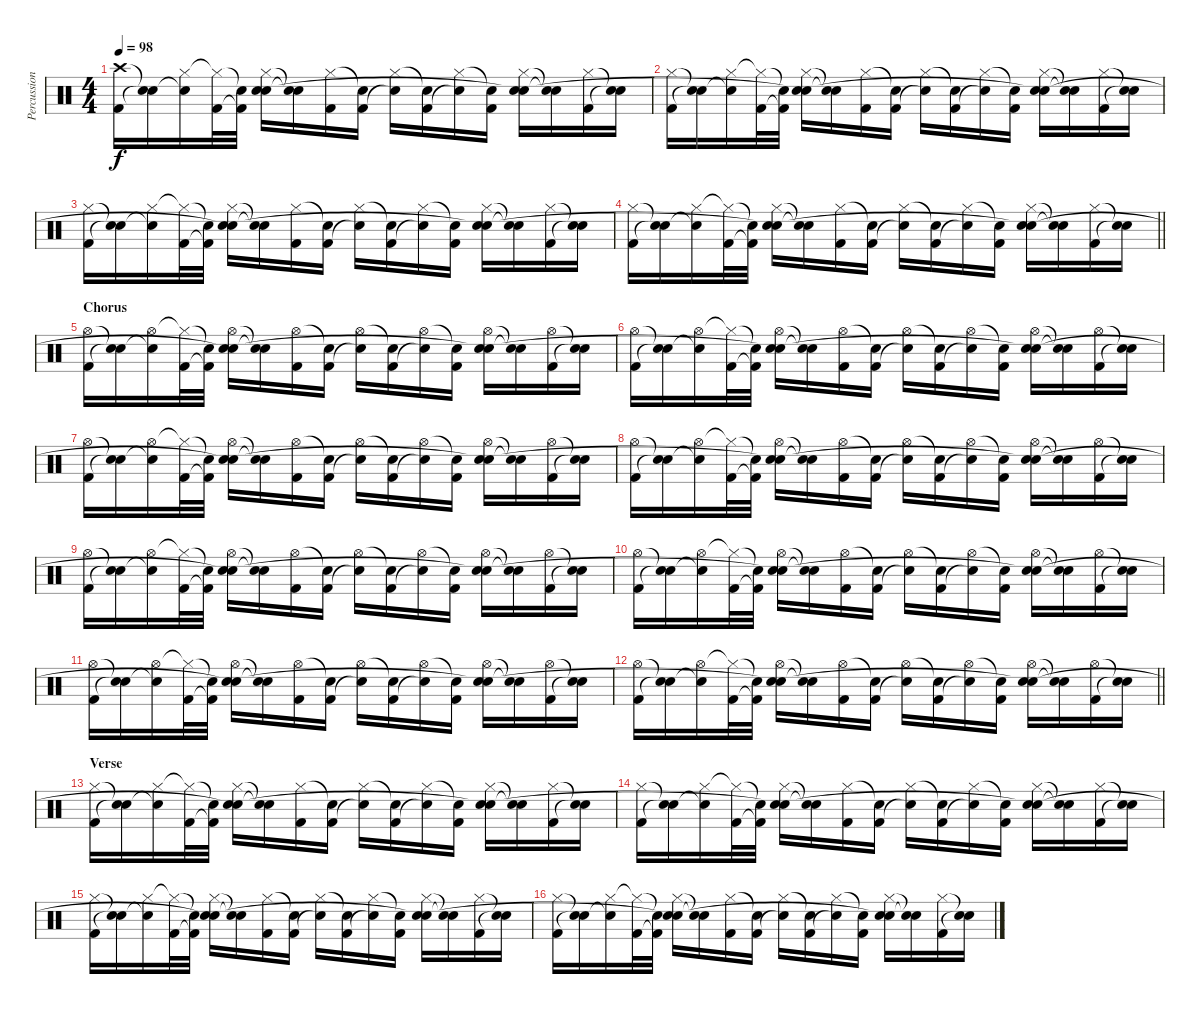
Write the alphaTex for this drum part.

\track ("Percussion" "Percussion") {instrument percussion}
\staff {score}
\articulation defaults
\ts (4 4)
\tempo 98
\clef neutral
\ks c
("Crash high (hit)" "Kick (hit) 2").16{dy f} ("Snare (hit)"{t} "Snare (hit)"{t}).16 ("Hi-Hat (closed)" "Snare (hit)"{t}).16 ("Hi-Hat (closed)"{t} "Kick (hit) 2").32 ("Snare (hit)"{t} "Kick (hit) 2"{t}).32 ("Hi-Hat (closed)" "Electric Snare (hit)" "Snare (hit)"{t}).16 ("Snare (hit)"{t} "Snare (hit)"{t}).16 ("Hi-Hat (closed)" "Kick (hit) 2").16 ("Snare (hit)"{t} "Kick (hit) 2").16 ("Hi-Hat (closed)" "Snare (hit)"{t}).16 ("Snare (hit)"{t} "Kick (hit) 2").16 ("Hi-Hat (closed)" "Snare (hit)"{t}).16 ("Snare (hit)"{t} "Kick (hit) 2").16 ("Hi-Hat (closed)" "Electric Snare (hit)" "Snare (hit)"{t}).16 ("Snare (hit)"{t} "Snare (hit)"{t}).16 ("Hi-Hat (closed)" "Kick (hit) 2").16 ("Snare (hit)"{t} "Snare (hit)"{t}).16 |
("Hi-Hat (closed)" "Kick (hit) 2").16 ("Snare (hit)"{t} "Snare (hit)"{t}).16 ("Hi-Hat (closed)" "Snare (hit)"{t}).16 ("Hi-Hat (closed)"{t} "Kick (hit) 2").32 ("Snare (hit)"{t} "Kick (hit) 2"{t}).32 ("Hi-Hat (closed)" "Electric Snare (hit)" "Snare (hit)"{t}).16 ("Snare (hit)"{t} "Snare (hit)"{t}).16 ("Hi-Hat (closed)" "Kick (hit) 2").16 ("Snare (hit)"{t} "Kick (hit) 2").16 ("Hi-Hat (closed)" "Snare (hit)"{t}).16 ("Snare (hit)"{t} "Kick (hit) 2").16 ("Hi-Hat (closed)" "Snare (hit)"{t}).16 ("Snare (hit)"{t} "Kick (hit) 2").16 ("Hi-Hat (closed)" "Electric Snare (hit)" "Snare (hit)"{t}).16 ("Snare (hit)"{t} "Snare (hit)"{t}).16 ("Hi-Hat (closed)" "Kick (hit) 2").16 ("Snare (hit)"{t} "Snare (hit)"{t}).16 |
("Hi-Hat (closed)" "Kick (hit) 2").16 ("Snare (hit)"{t} "Snare (hit)"{t}).16 ("Hi-Hat (closed)" "Snare (hit)"{t}).16 ("Hi-Hat (closed)"{t} "Kick (hit) 2").32 ("Snare (hit)"{t} "Kick (hit) 2"{t}).32 ("Hi-Hat (closed)" "Electric Snare (hit)" "Snare (hit)"{t}).16 ("Snare (hit)"{t} "Snare (hit)"{t}).16 ("Hi-Hat (closed)" "Kick (hit) 2").16 ("Snare (hit)"{t} "Kick (hit) 2").16 ("Hi-Hat (closed)" "Snare (hit)"{t}).16 ("Snare (hit)"{t} "Kick (hit) 2").16 ("Hi-Hat (closed)" "Snare (hit)"{t}).16 ("Snare (hit)"{t} "Kick (hit) 2").16 ("Hi-Hat (closed)" "Electric Snare (hit)" "Snare (hit)"{t}).16 ("Snare (hit)"{t} "Snare (hit)"{t}).16 ("Hi-Hat (closed)" "Kick (hit) 2").16 ("Snare (hit)"{t} "Snare (hit)"{t}).16 |
\barLineRight lightlight
("Hi-Hat (closed)" "Kick (hit) 2").16 ("Snare (hit)"{t} "Snare (hit)"{t}).16 ("Hi-Hat (closed)" "Snare (hit)"{t}).16 ("Hi-Hat (closed)"{t} "Kick (hit) 2").32 ("Snare (hit)"{t} "Kick (hit) 2"{t}).32 ("Hi-Hat (closed)" "Electric Snare (hit)" "Snare (hit)"{t}).16 ("Snare (hit)"{t} "Snare (hit)"{t}).16 ("Hi-Hat (closed)" "Kick (hit) 2").16 ("Snare (hit)"{t} "Kick (hit) 2").16 ("Hi-Hat (closed)" "Snare (hit)"{t}).16 ("Snare (hit)"{t} "Kick (hit) 2").16 ("Hi-Hat (closed)" "Snare (hit)"{t}).16 ("Snare (hit)"{t} "Kick (hit) 2").16 ("Hi-Hat (closed)" "Electric Snare (hit)" "Snare (hit)"{t}).16 ("Snare (hit)"{t} "Snare (hit)"{t}).16 ("Hi-Hat (closed)" "Kick (hit) 2").16 ("Snare (hit)"{t} "Snare (hit)"{t}).16 |
\section ("" "Chorus")
("Hi-Hat (open)" "Kick (hit) 2").16 ("Snare (hit)"{t} "Snare (hit)"{t}).16 ("Hi-Hat (open)" "Snare (hit)"{t}).16 ("Hi-Hat (closed)"{t} "Kick (hit) 2").32 ("Snare (hit)"{t} "Kick (hit) 2"{t}).32 ("Hi-Hat (open)" "Electric Snare (hit)" "Snare (hit)"{t}).16 ("Snare (hit)"{t} "Snare (hit)"{t}).16 ("Hi-Hat (open)" "Kick (hit) 2").16 ("Snare (hit)"{t} "Kick (hit) 2").16 ("Hi-Hat (open)" "Snare (hit)"{t}).16 ("Snare (hit)"{t} "Kick (hit) 2").16 ("Hi-Hat (open)" "Snare (hit)"{t}).16 ("Snare (hit)"{t} "Kick (hit) 2").16 ("Hi-Hat (open)" "Electric Snare (hit)" "Snare (hit)"{t}).16 ("Snare (hit)"{t} "Snare (hit)"{t}).16 ("Hi-Hat (open)" "Kick (hit) 2").16 ("Snare (hit)"{t} "Snare (hit)"{t}).16 |
("Hi-Hat (open)" "Kick (hit) 2").16 ("Snare (hit)"{t} "Snare (hit)"{t}).16 ("Hi-Hat (open)" "Snare (hit)"{t}).16 ("Hi-Hat (closed)"{t} "Kick (hit) 2").32 ("Snare (hit)"{t} "Kick (hit) 2"{t}).32 ("Hi-Hat (open)" "Electric Snare (hit)" "Snare (hit)"{t}).16 ("Snare (hit)"{t} "Snare (hit)"{t}).16 ("Hi-Hat (open)" "Kick (hit) 2").16 ("Snare (hit)"{t} "Kick (hit) 2").16 ("Hi-Hat (open)" "Snare (hit)"{t}).16 ("Snare (hit)"{t} "Kick (hit) 2").16 ("Hi-Hat (open)" "Snare (hit)"{t}).16 ("Snare (hit)"{t} "Kick (hit) 2").16 ("Hi-Hat (open)" "Electric Snare (hit)" "Snare (hit)"{t}).16 ("Snare (hit)"{t} "Snare (hit)"{t}).16 ("Hi-Hat (open)" "Kick (hit) 2").16 ("Snare (hit)"{t} "Snare (hit)"{t}).16 |
("Hi-Hat (open)" "Kick (hit) 2").16 ("Snare (hit)"{t} "Snare (hit)"{t}).16 ("Hi-Hat (open)" "Snare (hit)"{t}).16 ("Hi-Hat (closed)"{t} "Kick (hit) 2").32 ("Snare (hit)"{t} "Kick (hit) 2"{t}).32 ("Hi-Hat (open)" "Electric Snare (hit)" "Snare (hit)"{t}).16 ("Snare (hit)"{t} "Snare (hit)"{t}).16 ("Hi-Hat (open)" "Kick (hit) 2").16 ("Snare (hit)"{t} "Kick (hit) 2").16 ("Hi-Hat (open)" "Snare (hit)"{t}).16 ("Snare (hit)"{t} "Kick (hit) 2").16 ("Hi-Hat (open)" "Snare (hit)"{t}).16 ("Snare (hit)"{t} "Kick (hit) 2").16 ("Hi-Hat (open)" "Electric Snare (hit)" "Snare (hit)"{t}).16 ("Snare (hit)"{t} "Snare (hit)"{t}).16 ("Hi-Hat (open)" "Kick (hit) 2").16 ("Snare (hit)"{t} "Snare (hit)"{t}).16 |
("Hi-Hat (open)" "Kick (hit) 2").16 ("Snare (hit)"{t} "Snare (hit)"{t}).16 ("Hi-Hat (open)" "Snare (hit)"{t}).16 ("Hi-Hat (closed)"{t} "Kick (hit) 2").32 ("Snare (hit)"{t} "Kick (hit) 2"{t}).32 ("Hi-Hat (open)" "Electric Snare (hit)" "Snare (hit)"{t}).16 ("Snare (hit)"{t} "Snare (hit)"{t}).16 ("Hi-Hat (open)" "Kick (hit) 2").16 ("Snare (hit)"{t} "Kick (hit) 2").16 ("Hi-Hat (open)" "Snare (hit)"{t}).16 ("Snare (hit)"{t} "Kick (hit) 2").16 ("Hi-Hat (open)" "Snare (hit)"{t}).16 ("Snare (hit)"{t} "Kick (hit) 2").16 ("Hi-Hat (open)" "Electric Snare (hit)" "Snare (hit)"{t}).16 ("Snare (hit)"{t} "Snare (hit)"{t}).16 ("Hi-Hat (open)" "Kick (hit) 2").16 ("Snare (hit)"{t} "Snare (hit)"{t}).16 |
("Hi-Hat (open)" "Kick (hit) 2").16 ("Snare (hit)"{t} "Snare (hit)"{t}).16 ("Hi-Hat (open)" "Snare (hit)"{t}).16 ("Hi-Hat (closed)"{t} "Kick (hit) 2").32 ("Snare (hit)"{t} "Kick (hit) 2"{t}).32 ("Hi-Hat (open)" "Electric Snare (hit)" "Snare (hit)"{t}).16 ("Snare (hit)"{t} "Snare (hit)"{t}).16 ("Hi-Hat (open)" "Kick (hit) 2").16 ("Snare (hit)"{t} "Kick (hit) 2").16 ("Hi-Hat (open)" "Snare (hit)"{t}).16 ("Snare (hit)"{t} "Kick (hit) 2").16 ("Hi-Hat (open)" "Snare (hit)"{t}).16 ("Snare (hit)"{t} "Kick (hit) 2").16 ("Hi-Hat (open)" "Electric Snare (hit)" "Snare (hit)"{t}).16 ("Snare (hit)"{t} "Snare (hit)"{t}).16 ("Hi-Hat (open)" "Kick (hit) 2").16 ("Snare (hit)"{t} "Snare (hit)"{t}).16 |
("Hi-Hat (open)" "Kick (hit) 2").16 ("Snare (hit)"{t} "Snare (hit)"{t}).16 ("Hi-Hat (open)" "Snare (hit)"{t}).16 ("Hi-Hat (closed)"{t} "Kick (hit) 2").32 ("Snare (hit)"{t} "Kick (hit) 2"{t}).32 ("Hi-Hat (open)" "Electric Snare (hit)" "Snare (hit)"{t}).16 ("Snare (hit)"{t} "Snare (hit)"{t}).16 ("Hi-Hat (open)" "Kick (hit) 2").16 ("Snare (hit)"{t} "Kick (hit) 2").16 ("Hi-Hat (open)" "Snare (hit)"{t}).16 ("Snare (hit)"{t} "Kick (hit) 2").16 ("Hi-Hat (open)" "Snare (hit)"{t}).16 ("Snare (hit)"{t} "Kick (hit) 2").16 ("Hi-Hat (open)" "Electric Snare (hit)" "Snare (hit)"{t}).16 ("Snare (hit)"{t} "Snare (hit)"{t}).16 ("Hi-Hat (open)" "Kick (hit) 2").16 ("Snare (hit)"{t} "Snare (hit)"{t}).16 |
("Hi-Hat (open)" "Kick (hit) 2").16 ("Snare (hit)"{t} "Snare (hit)"{t}).16 ("Hi-Hat (open)" "Snare (hit)"{t}).16 ("Hi-Hat (closed)"{t} "Kick (hit) 2").32 ("Snare (hit)"{t} "Kick (hit) 2"{t}).32 ("Hi-Hat (open)" "Electric Snare (hit)" "Snare (hit)"{t}).16 ("Snare (hit)"{t} "Snare (hit)"{t}).16 ("Hi-Hat (open)" "Kick (hit) 2").16 ("Snare (hit)"{t} "Kick (hit) 2").16 ("Hi-Hat (open)" "Snare (hit)"{t}).16 ("Snare (hit)"{t} "Kick (hit) 2").16 ("Hi-Hat (open)" "Snare (hit)"{t}).16 ("Snare (hit)"{t} "Kick (hit) 2").16 ("Hi-Hat (open)" "Electric Snare (hit)" "Snare (hit)"{t}).16 ("Snare (hit)"{t} "Snare (hit)"{t}).16 ("Hi-Hat (open)" "Kick (hit) 2").16 ("Snare (hit)"{t} "Snare (hit)"{t}).16 |
\barLineRight lightlight
("Hi-Hat (open)" "Kick (hit) 2").16 ("Snare (hit)"{t} "Snare (hit)"{t}).16 ("Hi-Hat (open)" "Snare (hit)"{t}).16 ("Hi-Hat (closed)"{t} "Kick (hit) 2").32 ("Snare (hit)"{t} "Kick (hit) 2"{t}).32 ("Hi-Hat (open)" "Electric Snare (hit)" "Snare (hit)"{t}).16 ("Snare (hit)"{t} "Snare (hit)"{t}).16 ("Hi-Hat (open)" "Kick (hit) 2").16 ("Snare (hit)"{t} "Kick (hit) 2").16 ("Hi-Hat (open)" "Snare (hit)"{t}).16 ("Snare (hit)"{t} "Kick (hit) 2").16 ("Hi-Hat (open)" "Snare (hit)"{t}).16 ("Snare (hit)"{t} "Kick (hit) 2").16 ("Hi-Hat (open)" "Electric Snare (hit)" "Snare (hit)"{t}).16 ("Snare (hit)"{t} "Snare (hit)"{t}).16 ("Hi-Hat (open)" "Kick (hit) 2").16 ("Snare (hit)"{t} "Snare (hit)"{t}).16 |
\section ("" "Verse")
("Hi-Hat (closed)" "Kick (hit) 2").16 ("Snare (hit)"{t} "Snare (hit)"{t}).16 ("Hi-Hat (closed)" "Snare (hit)"{t}).16 ("Hi-Hat (closed)"{t} "Kick (hit) 2").32 ("Snare (hit)"{t} "Kick (hit) 2"{t}).32 ("Hi-Hat (closed)" "Electric Snare (hit)" "Snare (hit)"{t}).16 ("Snare (hit)"{t} "Snare (hit)"{t}).16 ("Hi-Hat (closed)" "Kick (hit) 2").16 ("Snare (hit)"{t} "Kick (hit) 2").16 ("Hi-Hat (closed)" "Snare (hit)"{t}).16 ("Snare (hit)"{t} "Kick (hit) 2").16 ("Hi-Hat (closed)" "Snare (hit)"{t}).16 ("Snare (hit)"{t} "Kick (hit) 2").16 ("Hi-Hat (closed)" "Electric Snare (hit)" "Snare (hit)"{t}).16 ("Snare (hit)"{t} "Snare (hit)"{t}).16 ("Hi-Hat (closed)" "Kick (hit) 2").16 ("Snare (hit)"{t} "Snare (hit)"{t}).16 |
("Hi-Hat (closed)" "Kick (hit) 2").16 ("Snare (hit)"{t} "Snare (hit)"{t}).16 ("Hi-Hat (closed)" "Snare (hit)"{t}).16 ("Hi-Hat (closed)"{t} "Kick (hit) 2").32 ("Snare (hit)"{t} "Kick (hit) 2"{t}).32 ("Hi-Hat (closed)" "Electric Snare (hit)" "Snare (hit)"{t}).16 ("Snare (hit)"{t} "Snare (hit)"{t}).16 ("Hi-Hat (closed)" "Kick (hit) 2").16 ("Snare (hit)"{t} "Kick (hit) 2").16 ("Hi-Hat (closed)" "Snare (hit)"{t}).16 ("Snare (hit)"{t} "Kick (hit) 2").16 ("Hi-Hat (closed)" "Snare (hit)"{t}).16 ("Snare (hit)"{t} "Kick (hit) 2").16 ("Hi-Hat (closed)" "Electric Snare (hit)" "Snare (hit)"{t}).16 ("Snare (hit)"{t} "Snare (hit)"{t}).16 ("Hi-Hat (closed)" "Kick (hit) 2").16 ("Snare (hit)"{t} "Snare (hit)"{t}).16 |
("Hi-Hat (closed)" "Kick (hit) 2").16 ("Snare (hit)"{t} "Snare (hit)"{t}).16 ("Hi-Hat (closed)" "Snare (hit)"{t}).16 ("Hi-Hat (closed)"{t} "Kick (hit) 2").32 ("Snare (hit)"{t} "Kick (hit) 2"{t}).32 ("Hi-Hat (closed)" "Electric Snare (hit)" "Snare (hit)"{t}).16 ("Snare (hit)"{t} "Snare (hit)"{t}).16 ("Hi-Hat (closed)" "Kick (hit) 2").16 ("Snare (hit)"{t} "Kick (hit) 2").16 ("Hi-Hat (closed)" "Snare (hit)"{t}).16 ("Snare (hit)"{t} "Kick (hit) 2").16 ("Hi-Hat (closed)" "Snare (hit)"{t}).16 ("Snare (hit)"{t} "Kick (hit) 2").16 ("Hi-Hat (closed)" "Electric Snare (hit)" "Snare (hit)"{t}).16 ("Snare (hit)"{t} "Snare (hit)"{t}).16 ("Hi-Hat (closed)" "Kick (hit) 2").16 ("Snare (hit)"{t} "Snare (hit)"{t}).16 |
("Hi-Hat (closed)" "Kick (hit) 2").16 ("Snare (hit)"{t} "Snare (hit)"{t}).16 ("Hi-Hat (closed)" "Snare (hit)"{t}).16 ("Hi-Hat (closed)"{t} "Kick (hit) 2").32 ("Snare (hit)"{t} "Kick (hit) 2"{t}).32 ("Hi-Hat (closed)" "Electric Snare (hit)" "Snare (hit)"{t}).16 ("Snare (hit)"{t} "Snare (hit)"{t}).16 ("Hi-Hat (closed)" "Kick (hit) 2").16 ("Snare (hit)"{t} "Kick (hit) 2").16 ("Hi-Hat (closed)" "Snare (hit)"{t}).16 ("Snare (hit)"{t} "Kick (hit) 2").16 ("Hi-Hat (closed)" "Snare (hit)"{t}).16 ("Snare (hit)"{t} "Kick (hit) 2").16 ("Hi-Hat (closed)" "Electric Snare (hit)" "Snare (hit)"{t}).16 ("Snare (hit)"{t} "Snare (hit)"{t}).16 ("Hi-Hat (closed)" "Kick (hit) 2").16 ("Snare (hit)"{t} "Snare (hit)"{t}).16
